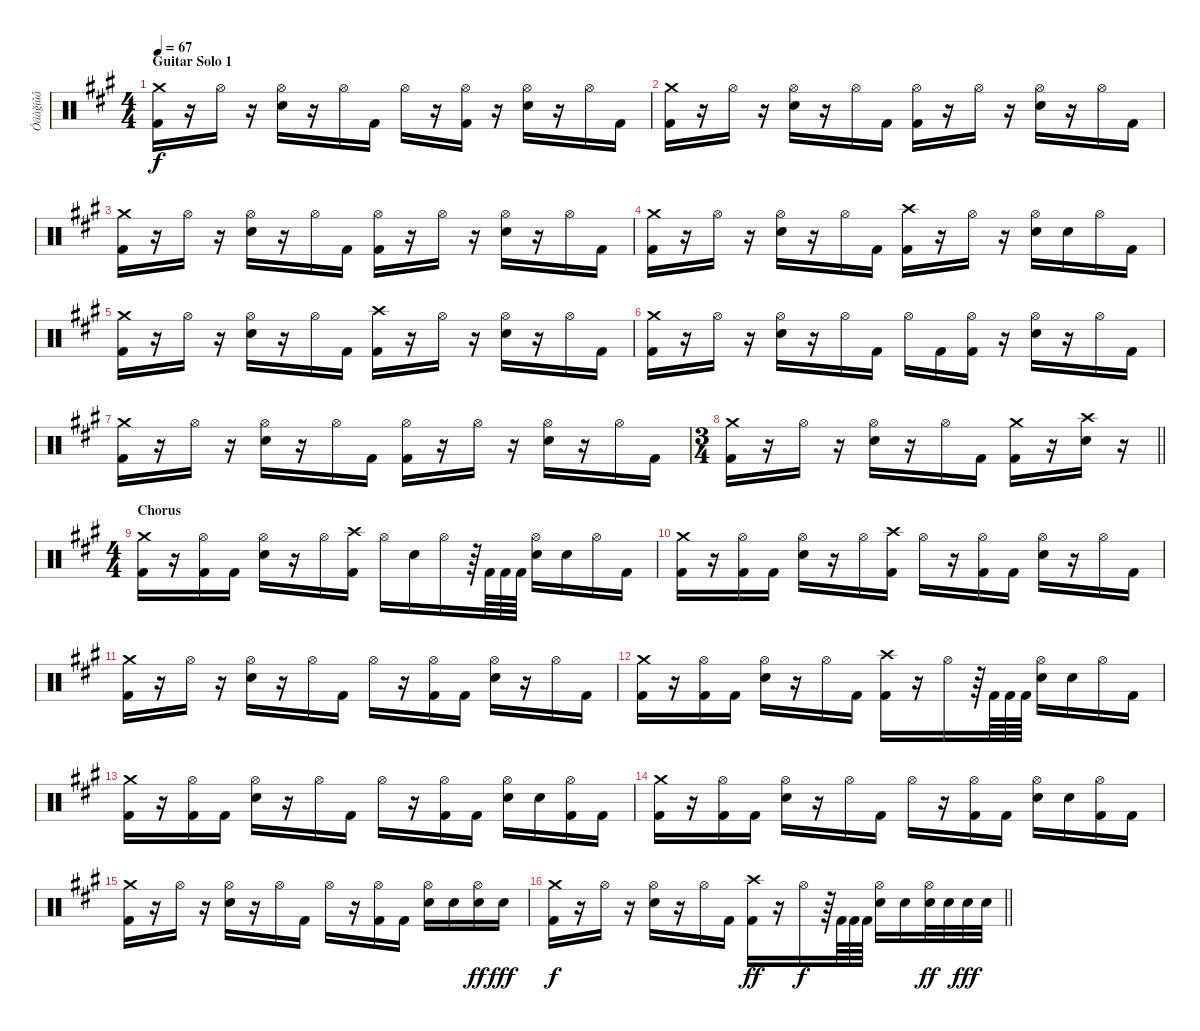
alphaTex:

\track ("Óäàğíûå" "Óäàğíûå") {instrument percussion}
\staff {score}
\articulation defaults
\ts (4 4)
\section ("" "Guitar Solo 1")
\tempo 67
\clef neutral
\ks a
("Crash medium (hit)" "Kick (hit) 2").16{dy f} r.16 "Hi-Hat (open)".16 r.16 ("Hi-Hat (open)" "Electric Snare (hit)").16 r.16 "Hi-Hat (open)".16 "Kick (hit) 2".16 "Hi-Hat (open)".16 r.16 ("Hi-Hat (open)" "Kick (hit) 2").16 r.16 ("Hi-Hat (open)" "Electric Snare (hit)").16 r.16 "Hi-Hat (open)".16 "Kick (hit) 2".16 |
("Crash medium (hit)" "Kick (hit) 2").16 r.16 "Hi-Hat (open)".16 r.16 ("Hi-Hat (open)" "Electric Snare (hit)").16 r.16 "Hi-Hat (open)".16 "Kick (hit) 2".16 ("Hi-Hat (open)" "Kick (hit) 2").16 r.16 "Hi-Hat (open)".16 r.16 ("Hi-Hat (open)" "Electric Snare (hit)").16 r.16 "Hi-Hat (open)".16 "Kick (hit) 2".16 |
("Crash medium (hit)" "Kick (hit) 2").16 r.16 "Hi-Hat (open)".16 r.16 ("Hi-Hat (open)" "Electric Snare (hit)").16 r.16 "Hi-Hat (open)".16 "Kick (hit) 2".16 ("Hi-Hat (open)" "Kick (hit) 2").16 r.16 "Hi-Hat (open)".16 r.16 ("Hi-Hat (open)" "Electric Snare (hit)").16 r.16 "Hi-Hat (open)".16 "Kick (hit) 2".16 |
("Crash medium (hit)" "Kick (hit) 2").16 r.16 "Hi-Hat (open)".16 r.16 ("Hi-Hat (open)" "Electric Snare (hit)").16 r.16 "Hi-Hat (open)".16 "Kick (hit) 2".16 ("Crash high (hit)" "Kick (hit) 2").16 r.16 "Hi-Hat (open)".16 r.16 ("Hi-Hat (open)" "Electric Snare (hit)").16 "Electric Snare (hit)".16 "Hi-Hat (open)".16 "Kick (hit) 2".16 |
("Crash medium (hit)" "Kick (hit) 2").16 r.16 "Hi-Hat (open)".16 r.16 ("Hi-Hat (open)" "Electric Snare (hit)").16 r.16 "Hi-Hat (open)".16 "Kick (hit) 2".16 ("Crash high (hit)" "Kick (hit) 2").16 r.16 "Hi-Hat (open)".16 r.16 ("Hi-Hat (open)" "Electric Snare (hit)").16 r.16 "Hi-Hat (open)".16 "Kick (hit) 2".16 |
("Crash medium (hit)" "Kick (hit) 2").16 r.16 "Hi-Hat (open)".16 r.16 ("Hi-Hat (open)" "Electric Snare (hit)").16 r.16 "Hi-Hat (open)".16 "Kick (hit) 2".16 "Hi-Hat (open)".16 "Kick (hit) 2".16 ("Hi-Hat (open)" "Kick (hit) 2").16 r.16 ("Hi-Hat (open)" "Electric Snare (hit)").16 r.16 "Hi-Hat (open)".16 "Kick (hit) 2".16 |
("Crash medium (hit)" "Kick (hit) 2").16 r.16 "Hi-Hat (open)".16 r.16 ("Hi-Hat (open)" "Electric Snare (hit)").16 r.16 "Hi-Hat (open)".16 "Kick (hit) 2".16 ("Hi-Hat (open)" "Kick (hit) 2").16 r.16 "Hi-Hat (open)".16 r.16 ("Hi-Hat (open)" "Electric Snare (hit)").16 r.16 "Hi-Hat (open)".16 "Kick (hit) 2".16 |
\ts (3 4)
\barLineRight lightlight
("Crash medium (hit)" "Kick (hit) 2").16 r.16 "Hi-Hat (open)".16 r.16 ("Hi-Hat (open)" "Electric Snare (hit)").16 r.16 "Hi-Hat (open)".16 "Kick (hit) 2".16 ("Crash medium (hit)" "Kick (hit) 2").16 r.16 ("Crash high (hit)" "Electric Snare (hit)").16 r.16 |
\ts (4 4)
\section ("" "Chorus")
("Crash medium (hit)" "Kick (hit) 2").16 r.16 ("Hi-Hat (open)" "Kick (hit) 2").16 "Kick (hit) 2".16 ("Hi-Hat (open)" "Electric Snare (hit)").16 r.16 "Hi-Hat (open)".16 ("Crash high (hit)" "Kick (hit) 2").16 "Hi-Hat (open)".16 "Electric Snare (hit)".16 "Hi-Hat (open)".16 r.64 "Kick (hit) 2".64 "Kick (hit) 2".64 "Kick (hit) 2".64 ("Hi-Hat (open)" "Electric Snare (hit)").16 "Electric Snare (hit)".16 "Hi-Hat (open)".16 "Kick (hit) 2".16 |
("Crash medium (hit)" "Kick (hit) 2").16 r.16 ("Hi-Hat (open)" "Kick (hit) 2").16 "Kick (hit) 2".16 ("Hi-Hat (open)" "Electric Snare (hit)").16 r.16 "Hi-Hat (open)".16 ("Crash high (hit)" "Kick (hit) 2").16 "Hi-Hat (open)".16 r.16 ("Hi-Hat (open)" "Kick (hit) 2").16 "Kick (hit) 2".16 ("Hi-Hat (open)" "Electric Snare (hit)").16 r.16 "Hi-Hat (open)".16 "Kick (hit) 2".16 |
("Crash medium (hit)" "Kick (hit) 2").16 r.16 "Hi-Hat (open)".16 r.16 ("Hi-Hat (open)" "Electric Snare (hit)").16 r.16 "Hi-Hat (open)".16 "Kick (hit) 2".16 "Hi-Hat (open)".16 r.16 ("Hi-Hat (open)" "Kick (hit) 2").16 "Kick (hit) 2".16 ("Hi-Hat (open)" "Electric Snare (hit)").16 r.16 "Hi-Hat (open)".16 "Kick (hit) 2".16 |
("Crash medium (hit)" "Kick (hit) 2").16 r.16 ("Hi-Hat (open)" "Kick (hit) 2").16 "Kick (hit) 2".16 ("Hi-Hat (open)" "Electric Snare (hit)").16 r.16 "Hi-Hat (open)".16 "Kick (hit) 2".16 ("Crash high (hit)" "Kick (hit) 2").16 r.16 "Hi-Hat (open)".16 r.64 "Kick (hit) 2".64 "Kick (hit) 2".64 "Kick (hit) 2".64 ("Hi-Hat (open)" "Electric Snare (hit)").16 "Electric Snare (hit)".16 "Hi-Hat (open)".16 "Kick (hit) 2".16 |
("Crash medium (hit)" "Kick (hit) 2").16 r.16 ("Hi-Hat (open)" "Kick (hit) 2").16 "Kick (hit) 2".16 ("Hi-Hat (open)" "Electric Snare (hit)").16 r.16 "Hi-Hat (open)".16 "Kick (hit) 2".16 "Hi-Hat (open)".16 r.16 ("Hi-Hat (open)" "Kick (hit) 2").16 "Kick (hit) 2".16 ("Hi-Hat (open)" "Electric Snare (hit)").16 "Electric Snare (hit)".16 ("Hi-Hat (open)" "Kick (hit) 2").16 "Kick (hit) 2".16 |
("Crash medium (hit)" "Kick (hit) 2").16 r.16 ("Hi-Hat (open)" "Kick (hit) 2").16 "Kick (hit) 2".16 ("Hi-Hat (open)" "Electric Snare (hit)").16 r.16 "Hi-Hat (open)".16 "Kick (hit) 2".16 "Hi-Hat (open)".16 r.16 ("Hi-Hat (open)" "Kick (hit) 2").16 "Kick (hit) 2".16 ("Hi-Hat (open)" "Electric Snare (hit)").16 "Electric Snare (hit)".16 ("Hi-Hat (open)" "Kick (hit) 2").16 "Kick (hit) 2".16 |
("Crash medium (hit)" "Kick (hit) 2").16 r.16 "Hi-Hat (open)".16 r.16 ("Hi-Hat (open)" "Electric Snare (hit)").16 r.16 "Hi-Hat (open)".16 "Kick (hit) 2".16 "Hi-Hat (open)".16 r.16 ("Hi-Hat (open)" "Kick (hit) 2").16 "Kick (hit) 2".16 ("Hi-Hat (open)" "Electric Snare (hit)").16 "Electric Snare (hit)".16 ("Hi-Hat (open)" "Electric Snare (hit)").16{dy ff} "Electric Snare (hit)".16{dy fff} |
\barLineRight lightlight
("Crash medium (hit)" "Kick (hit) 2").16{dy f} r.16 "Hi-Hat (open)".16 r.16 ("Hi-Hat (open)" "Electric Snare (hit)").16 r.16 "Hi-Hat (open)".16 "Kick (hit) 2".16 ("Crash high (hit)" "Kick (hit) 2").16{dy ff} r.16 "Hi-Hat (open)".16{dy f} r.64 "Kick (hit) 2".64 "Kick (hit) 2".64 "Kick (hit) 2".64 ("Hi-Hat (open)" "Electric Snare (hit)").16 "Electric Snare (hit)".16 ("Hi-Hat (open)" "Electric Snare (hit)").32{dy ff} "Electric Snare (hit)".32 "Electric Snare (hit)".32{dy fff} "Electric Snare (hit)".32
